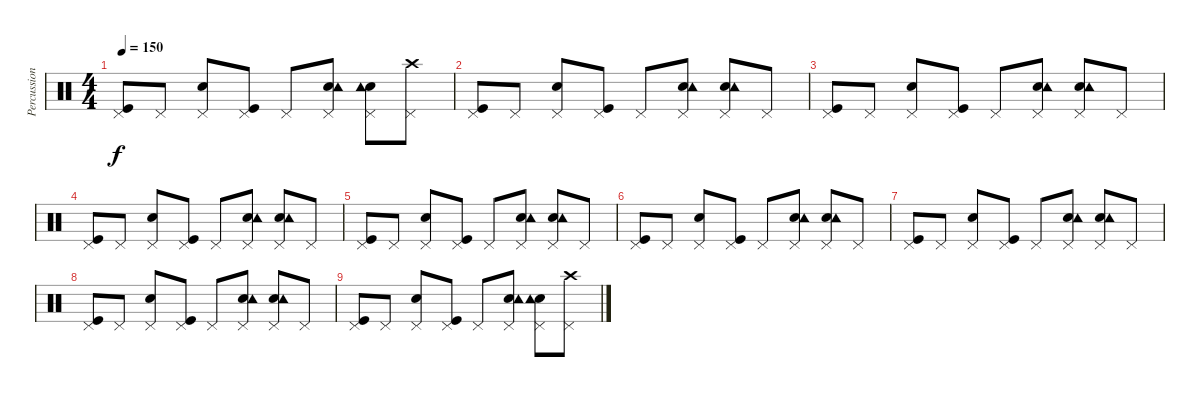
\track ("Percussion" "Percussion") {instrument percussion}
\staff {score}
\articulation defaults
\ts (4 4)
\tempo 150
\clef neutral
\ks c
("Kick (hit)" "Pedal Hi-Hat (hit)").8{dy f} "Pedal Hi-Hat (hit)".8 ("Electric Snare (hit)" "Pedal Hi-Hat (hit)").8 ("Kick (hit)" "Pedal Hi-Hat (hit)").8 "Pedal Hi-Hat (hit)".8 ("Electric Snare (hit)" "Tambourine (hit)" "Pedal Hi-Hat (hit)").8 ("Electric Snare (hit)" "Tambourine (hit)" "Pedal Hi-Hat (hit)").8 ("Crash high (hit)" "Pedal Hi-Hat (hit)").8 |
("Kick (hit)" "Pedal Hi-Hat (hit)").8 "Pedal Hi-Hat (hit)".8 ("Electric Snare (hit)" "Pedal Hi-Hat (hit)").8 ("Kick (hit)" "Pedal Hi-Hat (hit)").8 "Pedal Hi-Hat (hit)".8 ("Electric Snare (hit)" "Tambourine (hit)" "Pedal Hi-Hat (hit)").8 ("Electric Snare (hit)" "Tambourine (hit)" "Pedal Hi-Hat (hit)").8 "Pedal Hi-Hat (hit)".8 |
("Kick (hit)" "Pedal Hi-Hat (hit)").8 "Pedal Hi-Hat (hit)".8 ("Electric Snare (hit)" "Pedal Hi-Hat (hit)").8 ("Kick (hit)" "Pedal Hi-Hat (hit)").8 "Pedal Hi-Hat (hit)".8 ("Electric Snare (hit)" "Tambourine (hit)" "Pedal Hi-Hat (hit)").8 ("Electric Snare (hit)" "Tambourine (hit)" "Pedal Hi-Hat (hit)").8 "Pedal Hi-Hat (hit)".8 |
("Kick (hit)" "Pedal Hi-Hat (hit)").8 "Pedal Hi-Hat (hit)".8 ("Electric Snare (hit)" "Pedal Hi-Hat (hit)").8 ("Kick (hit)" "Pedal Hi-Hat (hit)").8 "Pedal Hi-Hat (hit)".8 ("Electric Snare (hit)" "Tambourine (hit)" "Pedal Hi-Hat (hit)").8 ("Electric Snare (hit)" "Tambourine (hit)" "Pedal Hi-Hat (hit)").8 "Pedal Hi-Hat (hit)".8 |
("Kick (hit)" "Pedal Hi-Hat (hit)").8 "Pedal Hi-Hat (hit)".8 ("Electric Snare (hit)" "Pedal Hi-Hat (hit)").8 ("Kick (hit)" "Pedal Hi-Hat (hit)").8 "Pedal Hi-Hat (hit)".8 ("Electric Snare (hit)" "Tambourine (hit)" "Pedal Hi-Hat (hit)").8 ("Electric Snare (hit)" "Tambourine (hit)" "Pedal Hi-Hat (hit)").8 "Pedal Hi-Hat (hit)".8 |
("Kick (hit)" "Pedal Hi-Hat (hit)").8 "Pedal Hi-Hat (hit)".8 ("Electric Snare (hit)" "Pedal Hi-Hat (hit)").8 ("Kick (hit)" "Pedal Hi-Hat (hit)").8 "Pedal Hi-Hat (hit)".8 ("Electric Snare (hit)" "Tambourine (hit)" "Pedal Hi-Hat (hit)").8 ("Electric Snare (hit)" "Tambourine (hit)" "Pedal Hi-Hat (hit)").8 "Pedal Hi-Hat (hit)".8 |
("Kick (hit)" "Pedal Hi-Hat (hit)").8 "Pedal Hi-Hat (hit)".8 ("Electric Snare (hit)" "Pedal Hi-Hat (hit)").8 ("Kick (hit)" "Pedal Hi-Hat (hit)").8 "Pedal Hi-Hat (hit)".8 ("Electric Snare (hit)" "Tambourine (hit)" "Pedal Hi-Hat (hit)").8 ("Electric Snare (hit)" "Tambourine (hit)" "Pedal Hi-Hat (hit)").8 "Pedal Hi-Hat (hit)".8 |
("Kick (hit)" "Pedal Hi-Hat (hit)").8 "Pedal Hi-Hat (hit)".8 ("Electric Snare (hit)" "Pedal Hi-Hat (hit)").8 ("Kick (hit)" "Pedal Hi-Hat (hit)").8 "Pedal Hi-Hat (hit)".8 ("Electric Snare (hit)" "Tambourine (hit)" "Pedal Hi-Hat (hit)").8 ("Electric Snare (hit)" "Tambourine (hit)" "Pedal Hi-Hat (hit)").8 "Pedal Hi-Hat (hit)".8 |
("Kick (hit)" "Pedal Hi-Hat (hit)").8 "Pedal Hi-Hat (hit)".8 ("Electric Snare (hit)" "Pedal Hi-Hat (hit)").8 ("Kick (hit)" "Pedal Hi-Hat (hit)").8 "Pedal Hi-Hat (hit)".8 ("Electric Snare (hit)" "Tambourine (hit)" "Pedal Hi-Hat (hit)").8 ("Electric Snare (hit)" "Tambourine (hit)" "Pedal Hi-Hat (hit)").8 ("Crash high (hit)" "Pedal Hi-Hat (hit)").8
